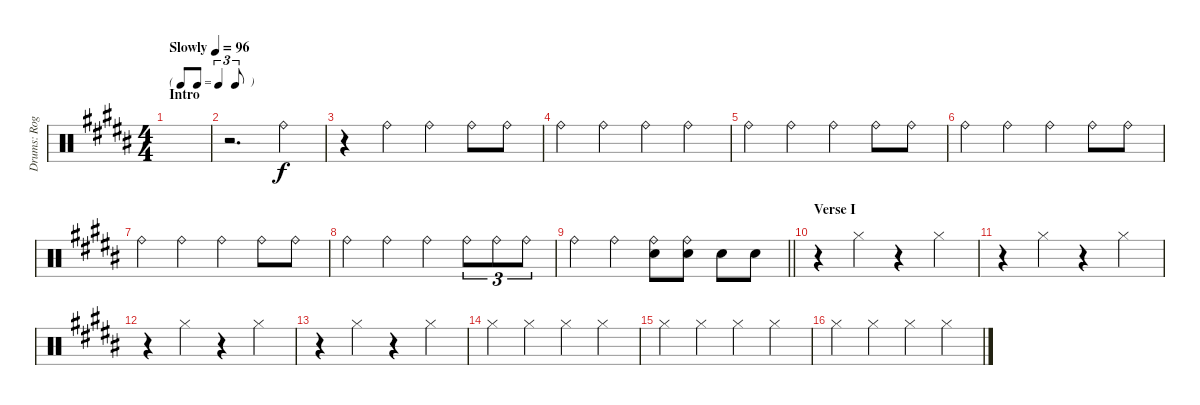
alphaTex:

\track ("Drums: Roger" "Drums: Rog") {instrument percussion}
\staff {score}
\articulation defaults
\ts (4 4)
\tf triplet8th
\section ("" "Intro")
\tempo (96 "Slowly")
\clef neutral
\ks b
|
r.2{d} "Ride (bell)".4 |
r.4 "Ride (bell)".4 "Ride (bell)".4 "Ride (bell)".8 "Ride (bell)".8 |
"Ride (bell)".4 "Ride (bell)".4 "Ride (bell)".4 "Ride (bell)".4 |
"Ride (bell)".4 "Ride (bell)".4 "Ride (bell)".4 "Ride (bell)".8 "Ride (bell)".8 |
"Ride (bell)".4 "Ride (bell)".4 "Ride (bell)".4 "Ride (bell)".8 "Ride (bell)".8 |
"Ride (bell)".4 "Ride (bell)".4 "Ride (bell)".4 "Ride (bell)".8 "Ride (bell)".8 |
"Ride (bell)".4 "Ride (bell)".4 "Ride (bell)".4 "Ride (bell)".8{tu (3 2)} "Ride (bell)".8{tu (3 2)} "Ride (bell)".8{tu (3 2)} |
\barLineRight lightlight "Ride (bell)".4 "Ride (bell)".4
("Ride (bell)" "Electric Snare (hit)").8 ("Ride (bell)" "Electric Snare (hit)").8 "Electric Snare (hit)".8 "Electric Snare (hit)".8 |
\section ("" "Verse I")
r.4 "Hi-Hat (closed)".4 r.4 "Hi-Hat (closed)".4 |
r.4 "Hi-Hat (closed)".4 r.4 "Hi-Hat (closed)".4 |
r.4 "Hi-Hat (closed)".4 r.4 "Hi-Hat (closed)".4 |
r.4 "Hi-Hat (closed)".4 r.4 "Hi-Hat (closed)".4 |
"Hi-Hat (closed)".4 "Hi-Hat (closed)".4 "Hi-Hat (closed)".4 "Hi-Hat (closed)".4 |
"Hi-Hat (closed)".4 "Hi-Hat (closed)".4 "Hi-Hat (closed)".4 "Hi-Hat (closed)".4 |
"Hi-Hat (closed)".4 "Hi-Hat (closed)".4 "Hi-Hat (closed)".4 "Hi-Hat (closed)".4
